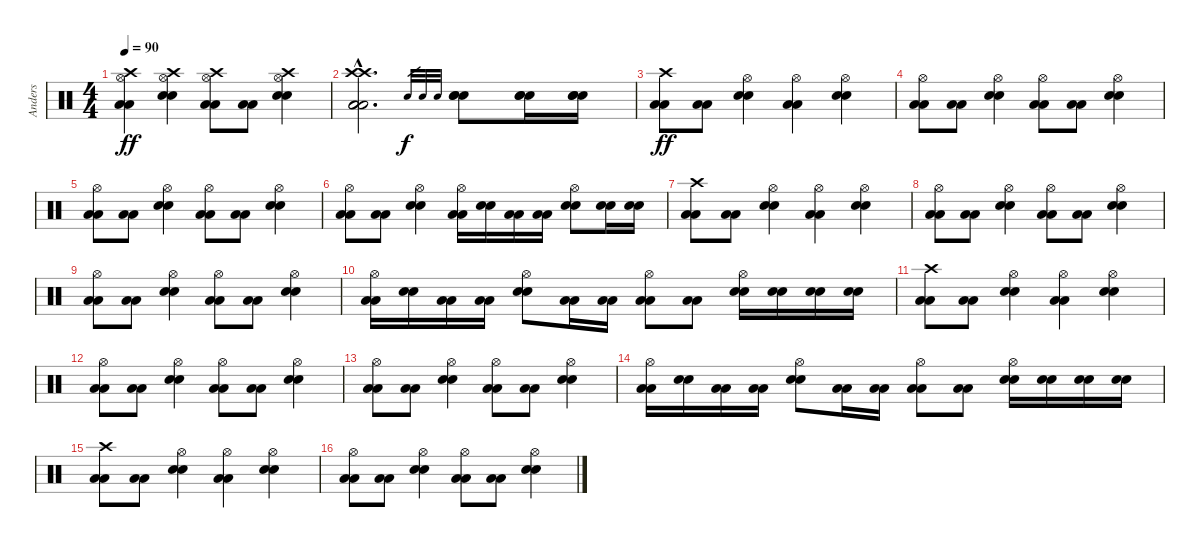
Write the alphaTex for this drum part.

\track ("Anders" "Anders") {instrument percussion}
\staff {score}
\articulation defaults
\ts (4 4)
\tempo 90
\clef neutral
\ks c
("Crash high (hit)" "Hi-Hat (open)" "Low Floor Tom (hit)" "Low Floor Tom (hit)").4{dy ff} ("Crash high (hit)" "Hi-Hat (open)" "Electric Snare (hit)" "Electric Snare (hit)").4 ("Crash high (hit)" "Hi-Hat (open)" "Low Floor Tom (hit)" "Low Floor Tom (hit)").8 ("Low Floor Tom (hit)" "Low Floor Tom (hit)").8 ("Hi-Hat (open)" "Crash high (hit)" "Electric Snare (hit)" "Electric Snare (hit)").4 |
("Crash high (hit)"{hac} "Crash high (hit)"{hac} "Low Floor Tom (hit)"{hac} "Low Floor Tom (hit)"{hac} "Low Floor Tom (hit)"{hac}).2{d} "Electric Snare (hit)".32{gr dy f} "Electric Snare (hit)".32{gr} "Electric Snare (hit)".32{gr} ("Electric Snare (hit)" "Electric Snare (hit)" "Electric Snare (hit)").8 ("Electric Snare (hit)" "Electric Snare (hit)" "Electric Snare (hit)").16 ("Electric Snare (hit)" "Electric Snare (hit)" "Electric Snare (hit)").16 |
("Crash high (hit)" "Low Floor Tom (hit)" "Low Floor Tom (hit)").8{dy ff} ("Low Floor Tom (hit)" "Low Floor Tom (hit)").8 ("Hi-Hat (open)" "Electric Snare (hit)" "Electric Snare (hit)").4 ("Hi-Hat (open)" "Low Floor Tom (hit)" "Low Floor Tom (hit)").4 ("Hi-Hat (open)" "Electric Snare (hit)" "Electric Snare (hit)").4 |
("Hi-Hat (open)" "Low Floor Tom (hit)" "Low Floor Tom (hit)").8 ("Low Floor Tom (hit)" "Low Floor Tom (hit)").8 ("Hi-Hat (open)" "Electric Snare (hit)" "Electric Snare (hit)").4 ("Hi-Hat (open)" "Low Floor Tom (hit)" "Low Floor Tom (hit)").8 ("Low Floor Tom (hit)" "Low Floor Tom (hit)").8 ("Hi-Hat (open)" "Electric Snare (hit)" "Electric Snare (hit)").4 |
("Hi-Hat (open)" "Low Floor Tom (hit)" "Low Floor Tom (hit)").8 ("Low Floor Tom (hit)" "Low Floor Tom (hit)").8 ("Hi-Hat (open)" "Electric Snare (hit)" "Electric Snare (hit)").4 ("Hi-Hat (open)" "Low Floor Tom (hit)" "Low Floor Tom (hit)").8 ("Low Floor Tom (hit)" "Low Floor Tom (hit)").8 ("Hi-Hat (open)" "Electric Snare (hit)" "Electric Snare (hit)").4 |
("Hi-Hat (open)" "Low Floor Tom (hit)" "Low Floor Tom (hit)").8 ("Low Floor Tom (hit)" "Low Floor Tom (hit)").8 ("Hi-Hat (open)" "Electric Snare (hit)" "Electric Snare (hit)").4 ("Hi-Hat (open)" "Low Floor Tom (hit)" "Low Floor Tom (hit)").16 ("Electric Snare (hit)" "Electric Snare (hit)").16 ("Low Floor Tom (hit)" "Low Floor Tom (hit)").16 ("Low Floor Tom (hit)" "Low Floor Tom (hit)").16 ("Hi-Hat (open)" "Electric Snare (hit)" "Electric Snare (hit)").8 ("Electric Snare (hit)" "Electric Snare (hit)").16 ("Electric Snare (hit)" "Electric Snare (hit)").16 |
("Crash high (hit)" "Low Floor Tom (hit)" "Low Floor Tom (hit)").8 ("Low Floor Tom (hit)" "Low Floor Tom (hit)").8 ("Hi-Hat (open)" "Electric Snare (hit)" "Electric Snare (hit)").4 ("Hi-Hat (open)" "Low Floor Tom (hit)" "Low Floor Tom (hit)").4 ("Hi-Hat (open)" "Electric Snare (hit)" "Electric Snare (hit)").4 |
("Hi-Hat (open)" "Low Floor Tom (hit)" "Low Floor Tom (hit)").8 ("Low Floor Tom (hit)" "Low Floor Tom (hit)").8 ("Hi-Hat (open)" "Electric Snare (hit)" "Electric Snare (hit)").4 ("Hi-Hat (open)" "Low Floor Tom (hit)" "Low Floor Tom (hit)").8 ("Low Floor Tom (hit)" "Low Floor Tom (hit)").8 ("Hi-Hat (open)" "Electric Snare (hit)" "Electric Snare (hit)").4 |
("Hi-Hat (open)" "Low Floor Tom (hit)" "Low Floor Tom (hit)").8 ("Low Floor Tom (hit)" "Low Floor Tom (hit)").8 ("Hi-Hat (open)" "Electric Snare (hit)" "Electric Snare (hit)").4 ("Hi-Hat (open)" "Low Floor Tom (hit)" "Low Floor Tom (hit)").8 ("Low Floor Tom (hit)" "Low Floor Tom (hit)").8 ("Hi-Hat (open)" "Electric Snare (hit)" "Electric Snare (hit)").4 |
("Hi-Hat (open)" "Low Floor Tom (hit)" "Low Floor Tom (hit)").16 ("Electric Snare (hit)" "Electric Snare (hit)").16 ("Low Floor Tom (hit)" "Low Floor Tom (hit)").16 ("Low Floor Tom (hit)" "Low Floor Tom (hit)").16 ("Hi-Hat (open)" "Electric Snare (hit)" "Electric Snare (hit)").8 ("Low Floor Tom (hit)" "Low Floor Tom (hit)").16 ("Low Floor Tom (hit)" "Low Floor Tom (hit)").16 ("Hi-Hat (open)" "Low Floor Tom (hit)" "Low Floor Tom (hit)").8 ("Low Floor Tom (hit)" "Low Floor Tom (hit)").8 ("Hi-Hat (open)" "Electric Snare (hit)" "Electric Snare (hit)").16 ("Electric Snare (hit)" "Electric Snare (hit)").16 ("Electric Snare (hit)" "Electric Snare (hit)").16 ("Electric Snare (hit)" "Electric Snare (hit)").16 |
("Crash high (hit)" "Low Floor Tom (hit)" "Low Floor Tom (hit)").8 ("Low Floor Tom (hit)" "Low Floor Tom (hit)").8 ("Hi-Hat (open)" "Electric Snare (hit)" "Electric Snare (hit)").4 ("Hi-Hat (open)" "Low Floor Tom (hit)" "Low Floor Tom (hit)").4 ("Hi-Hat (open)" "Electric Snare (hit)" "Electric Snare (hit)").4 |
("Hi-Hat (open)" "Low Floor Tom (hit)" "Low Floor Tom (hit)").8 ("Low Floor Tom (hit)" "Low Floor Tom (hit)").8 ("Hi-Hat (open)" "Electric Snare (hit)" "Electric Snare (hit)").4 ("Hi-Hat (open)" "Low Floor Tom (hit)" "Low Floor Tom (hit)").8 ("Low Floor Tom (hit)" "Low Floor Tom (hit)").8 ("Hi-Hat (open)" "Electric Snare (hit)" "Electric Snare (hit)").4 |
("Hi-Hat (open)" "Low Floor Tom (hit)" "Low Floor Tom (hit)").8 ("Low Floor Tom (hit)" "Low Floor Tom (hit)").8 ("Hi-Hat (open)" "Electric Snare (hit)" "Electric Snare (hit)").4 ("Hi-Hat (open)" "Low Floor Tom (hit)" "Low Floor Tom (hit)").8 ("Low Floor Tom (hit)" "Low Floor Tom (hit)").8 ("Hi-Hat (open)" "Electric Snare (hit)" "Electric Snare (hit)").4 |
("Hi-Hat (open)" "Low Floor Tom (hit)" "Low Floor Tom (hit)").16 ("Electric Snare (hit)" "Electric Snare (hit)").16 ("Low Floor Tom (hit)" "Low Floor Tom (hit)").16 ("Low Floor Tom (hit)" "Low Floor Tom (hit)").16 ("Hi-Hat (open)" "Electric Snare (hit)" "Electric Snare (hit)").8 ("Low Floor Tom (hit)" "Low Floor Tom (hit)").16 ("Low Floor Tom (hit)" "Low Floor Tom (hit)").16 ("Hi-Hat (open)" "Low Floor Tom (hit)" "Low Floor Tom (hit)").8 ("Low Floor Tom (hit)" "Low Floor Tom (hit)").8 ("Hi-Hat (open)" "Electric Snare (hit)" "Electric Snare (hit)").16 ("Electric Snare (hit)" "Electric Snare (hit)").16 ("Electric Snare (hit)" "Electric Snare (hit)").16 ("Electric Snare (hit)" "Electric Snare (hit)").16 |
("Crash high (hit)" "Low Floor Tom (hit)" "Low Floor Tom (hit)").8 ("Low Floor Tom (hit)" "Low Floor Tom (hit)").8 ("Hi-Hat (open)" "Electric Snare (hit)" "Electric Snare (hit)").4 ("Hi-Hat (open)" "Low Floor Tom (hit)" "Low Floor Tom (hit)").4 ("Hi-Hat (open)" "Electric Snare (hit)" "Electric Snare (hit)").4 |
("Hi-Hat (open)" "Low Floor Tom (hit)" "Low Floor Tom (hit)").8 ("Low Floor Tom (hit)" "Low Floor Tom (hit)").8 ("Hi-Hat (open)" "Electric Snare (hit)" "Electric Snare (hit)").4 ("Hi-Hat (open)" "Low Floor Tom (hit)" "Low Floor Tom (hit)").8 ("Low Floor Tom (hit)" "Low Floor Tom (hit)").8 ("Hi-Hat (open)" "Electric Snare (hit)" "Electric Snare (hit)").4
